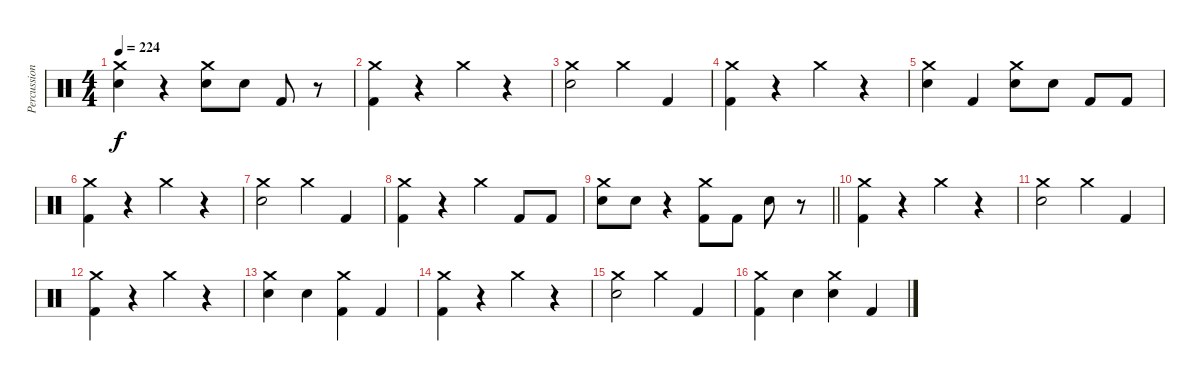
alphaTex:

\track ("Percussion" "Percussion") {instrument percussion}
\staff {score}
\articulation defaults
\ts (4 4)
\tempo 224
\clef neutral
\ks c
("Snare (hit) 2" "Crash medium (hit)").4{dy f} r.4 ("Snare (hit) 2" "Crash medium (hit)").8 "Snare (hit) 2".8 "Kick (hit) 2".8 r.8 |
("Kick (hit) 2" "Crash medium (hit)").4 r.4 "Crash medium (hit)".4 r.4 |
("Snare (hit) 2" "Crash medium (hit)").2 "Crash medium (hit)".4 "Kick (hit) 2".4 |
("Kick (hit) 2" "Crash medium (hit)").4 r.4 "Crash medium (hit)".4 r.4 |
("Snare (hit) 2" "Crash medium (hit)").4 "Kick (hit) 2".4 ("Snare (hit) 2" "Crash medium (hit)").8 "Snare (hit) 2".8 "Kick (hit) 2".8 "Kick (hit) 2".8 |
("Kick (hit) 2" "Crash medium (hit)").4 r.4 "Crash medium (hit)".4 r.4 |
("Snare (hit) 2" "Crash medium (hit)").2 "Crash medium (hit)".4 "Kick (hit) 2".4 |
("Kick (hit) 2" "Crash medium (hit)").4 r.4 "Crash medium (hit)".4 "Kick (hit) 2".8 "Kick (hit) 2".8 |
\barLineRight lightlight
("Snare (hit) 2" "Crash medium (hit)").8 "Snare (hit) 2".8 r.4 ("Kick (hit) 2" "Crash medium (hit)").8 "Kick (hit) 2".8 "Snare (hit) 2".8 r.8 |
("Kick (hit) 2" "Crash medium (hit)").4 r.4 "Crash medium (hit)".4 r.4 |
("Snare (hit) 2" "Crash medium (hit)").2 "Crash medium (hit)".4 "Kick (hit) 2".4 |
("Kick (hit) 2" "Crash medium (hit)").4 r.4 "Crash medium (hit)".4 r.4 |
("Snare (hit) 2" "Crash medium (hit)").4 "Snare (hit) 2".4 ("Kick (hit) 2" "Crash medium (hit)").4 "Kick (hit) 2".4 |
("Kick (hit) 2" "Crash medium (hit)").4 r.4 "Crash medium (hit)".4 r.4 |
("Snare (hit) 2" "Crash medium (hit)").2 "Crash medium (hit)".4 "Kick (hit) 2".4 |
("Kick (hit) 2" "Crash medium (hit)").4 "Snare (hit) 2".4 ("Snare (hit) 2" "Crash medium (hit)").4 "Kick (hit) 2".4
